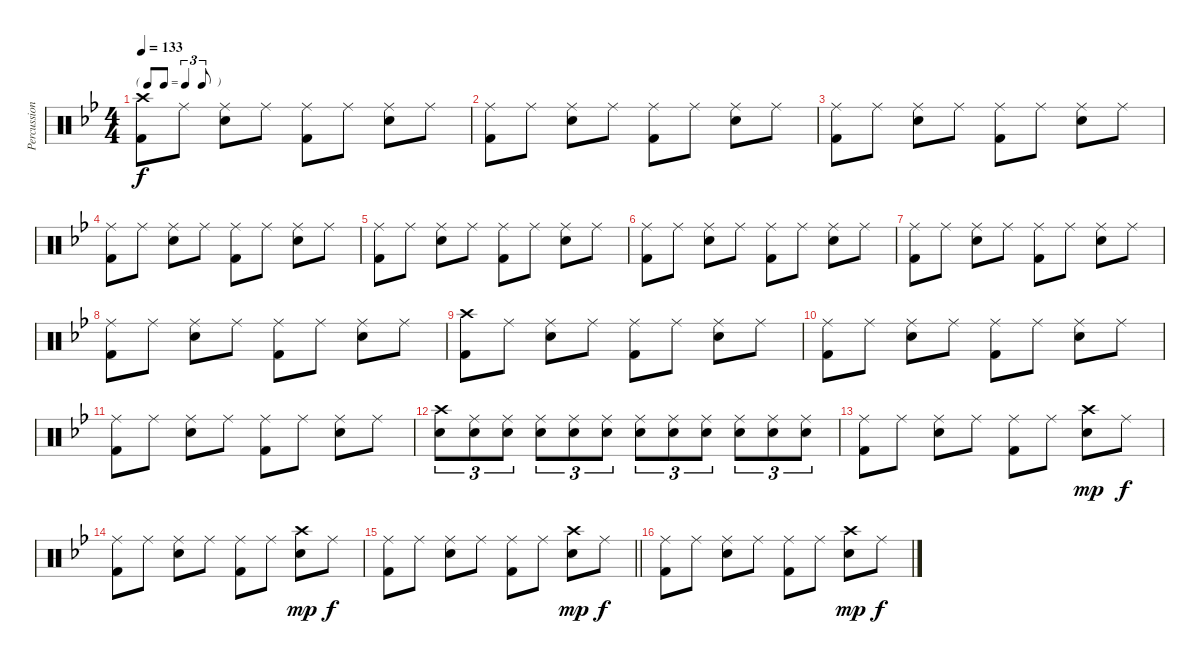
\track ("Percussion" "Percussion") {instrument percussion}
\staff {score}
\articulation defaults
\ts (4 4)
\tf triplet8th
\tempo 133
\clef neutral
\ks bb
("Crash high (hit)" "Kick (hit) 2").8{dy f} "Ride (middle)".8 ("Ride (middle)" "Snare (hit) 2").8 "Ride (middle)".8 ("Ride (middle)" "Kick (hit) 2").8 "Ride (middle)".8 ("Ride (middle)" "Snare (hit) 2").8 "Ride (middle)".8 |
("Ride (middle)" "Kick (hit) 2").8 "Ride (middle)".8 ("Ride (middle)" "Snare (hit) 2").8 "Ride (middle)".8 ("Ride (middle)" "Kick (hit) 2").8 "Ride (middle)".8 ("Ride (middle)" "Snare (hit) 2").8 "Ride (middle)".8 |
("Ride (middle)" "Kick (hit) 2").8 "Ride (middle)".8 ("Ride (middle)" "Snare (hit) 2").8 "Ride (middle)".8 ("Ride (middle)" "Kick (hit) 2").8 "Ride (middle)".8 ("Ride (middle)" "Snare (hit) 2").8 "Ride (middle)".8 |
("Ride (middle)" "Kick (hit) 2").8 "Ride (middle)".8 ("Ride (middle)" "Snare (hit) 2").8 "Ride (middle)".8 ("Ride (middle)" "Kick (hit) 2").8 "Ride (middle)".8 ("Ride (middle)" "Snare (hit) 2").8 "Ride (middle)".8 |
("Ride (middle)" "Kick (hit) 2").8 "Ride (middle)".8 ("Ride (middle)" "Snare (hit) 2").8 "Ride (middle)".8 ("Ride (middle)" "Kick (hit) 2").8 "Ride (middle)".8 ("Ride (middle)" "Snare (hit) 2").8 "Ride (middle)".8 |
("Ride (middle)" "Kick (hit) 2").8 "Ride (middle)".8 ("Ride (middle)" "Snare (hit) 2").8 "Ride (middle)".8 ("Ride (middle)" "Kick (hit) 2").8 "Ride (middle)".8 ("Ride (middle)" "Snare (hit) 2").8 "Ride (middle)".8 |
("Ride (middle)" "Kick (hit) 2").8 "Ride (middle)".8 ("Ride (middle)" "Snare (hit) 2").8 "Ride (middle)".8 ("Ride (middle)" "Kick (hit) 2").8 "Ride (middle)".8 ("Ride (middle)" "Snare (hit) 2").8 "Ride (middle)".8 |
("Ride (middle)" "Kick (hit) 2").8 "Ride (middle)".8 ("Ride (middle)" "Snare (hit) 2").8 "Ride (middle)".8 ("Ride (middle)" "Kick (hit) 2").8 "Ride (middle)".8 ("Ride (middle)" "Snare (hit) 2").8 "Ride (middle)".8 |
("Crash high (hit)" "Kick (hit) 2").8 "Ride (middle)".8 ("Ride (middle)" "Snare (hit) 2").8 "Ride (middle)".8 ("Ride (middle)" "Kick (hit) 2").8 "Ride (middle)".8 ("Ride (middle)" "Snare (hit) 2").8 "Ride (middle)".8 |
("Ride (middle)" "Kick (hit) 2").8 "Ride (middle)".8 ("Ride (middle)" "Snare (hit) 2").8 "Ride (middle)".8 ("Ride (middle)" "Kick (hit) 2").8 "Ride (middle)".8 ("Ride (middle)" "Snare (hit) 2").8 "Ride (middle)".8 |
("Ride (middle)" "Kick (hit) 2").8 "Ride (middle)".8 ("Ride (middle)" "Snare (hit) 2").8 "Ride (middle)".8 ("Ride (middle)" "Kick (hit) 2").8 "Ride (middle)".8 ("Ride (middle)" "Snare (hit) 2").8 "Ride (middle)".8 |
("Crash high (hit)" "Snare (hit) 2").8{tu (3 2)} ("Ride (middle)" "Snare (hit) 2").8{tu (3 2)} ("Ride (middle)" "Snare (hit) 2").8{tu (3 2)} ("Ride (middle)" "Snare (hit) 2").8{tu (3 2)} ("Ride (middle)" "Snare (hit) 2").8{tu (3 2)} ("Ride (middle)" "Snare (hit) 2").8{tu (3 2)} ("Ride (middle)" "Snare (hit) 2").8{tu (3 2)} ("Ride (middle)" "Snare (hit) 2").8{tu (3 2)} ("Ride (middle)" "Snare (hit) 2").8{tu (3 2)} ("Ride (middle)" "Snare (hit) 2").8{tu (3 2)} ("Ride (middle)" "Snare (hit) 2").8{tu (3 2)} ("Ride (middle)" "Snare (hit) 2").8{tu (3 2)} |
("Ride (middle)" "Kick (hit) 2").8 "Ride (middle)".8 ("Ride (middle)" "Snare (hit) 2").8 "Ride (middle)".8 ("Ride (middle)" "Kick (hit) 2").8 "Ride (middle)".8 ("Crash high (hit)" "Snare (hit) 2").8{dy mp} "Ride (middle)".8{dy f} |
("Ride (middle)" "Kick (hit) 2").8 "Ride (middle)".8 ("Ride (middle)" "Snare (hit) 2").8 "Ride (middle)".8 ("Ride (middle)" "Kick (hit) 2").8 "Ride (middle)".8 ("Crash high (hit)" "Snare (hit) 2").8{dy mp} "Ride (middle)".8{dy f} |
\barLineRight lightlight
("Ride (middle)" "Kick (hit) 2").8 "Ride (middle)".8 ("Ride (middle)" "Snare (hit) 2").8 "Ride (middle)".8 ("Ride (middle)" "Kick (hit) 2").8 "Ride (middle)".8 ("Crash high (hit)" "Snare (hit) 2").8{dy mp} "Ride (middle)".8{dy f} |
("Ride (middle)" "Kick (hit) 2").8 "Ride (middle)".8 ("Ride (middle)" "Snare (hit) 2").8 "Ride (middle)".8 ("Ride (middle)" "Kick (hit) 2").8 "Ride (middle)".8 ("Crash high (hit)" "Snare (hit) 2").8{dy mp} "Ride (middle)".8{dy f}
